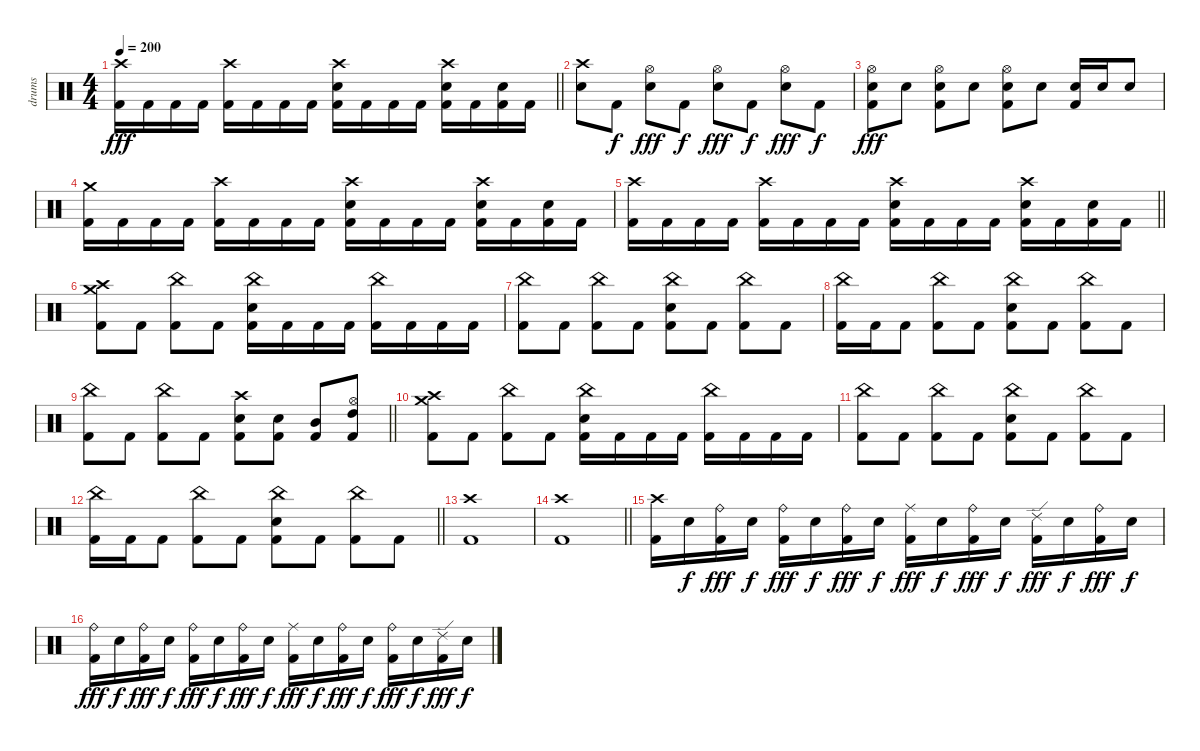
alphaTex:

\track ("drums" "drums") {instrument percussion}
\staff {score}
\articulation defaults
\ts (4 4)
\tempo 200
\clef neutral
\barLineRight lightlight
\ks c
("Crash high (hit)" "Kick (hit) 2").16{dy fff} "Kick (hit) 2".16 "Kick (hit) 2".16 "Kick (hit) 2".16 ("Crash high (hit)" "Kick (hit) 2").16 "Kick (hit) 2".16 "Kick (hit) 2".16 "Kick (hit) 2".16 ("Crash high (hit)" "Electric Snare (hit)" "Kick (hit) 2").16 "Kick (hit) 2".16 "Kick (hit) 2".16 "Kick (hit) 2".16 ("Crash high (hit)" "Electric Snare (hit)" "Kick (hit) 2").16 "Kick (hit) 2".16 ("Electric Snare (hit)" "Kick (hit) 2").16 "Kick (hit) 2".16 |
("Crash high (hit)" "Electric Snare (hit)").8 "Kick (hit) 2".8{dy f} ("Hi-Hat (open)" "Electric Snare (hit)").8{dy fff} "Kick (hit) 2".8{dy f} ("Hi-Hat (open)" "Electric Snare (hit)").8{dy fff} "Kick (hit) 2".8{dy f} ("Hi-Hat (open)" "Electric Snare (hit)").8{dy fff} "Kick (hit) 2".8{dy f} |
("Hi-Hat (open)" "Electric Snare (hit)" "Kick (hit) 2").8{dy fff} "Electric Snare (hit)".8 ("Hi-Hat (open)" "Electric Snare (hit)" "Kick (hit) 2").8 "Electric Snare (hit)".8 ("Hi-Hat (open)" "Electric Snare (hit)" "Kick (hit) 2").8 "Electric Snare (hit)".8 ("Electric Snare (hit)" "Kick (hit) 2").16 "Electric Snare (hit)".16 "Electric Snare (hit)".8 |
("Crash medium (hit)" "Kick (hit) 2").16 "Kick (hit) 2".16 "Kick (hit) 2".16 "Kick (hit) 2".16 ("Crash high (hit)" "Kick (hit) 2").16 "Kick (hit) 2".16 "Kick (hit) 2".16 "Kick (hit) 2".16 ("Crash high (hit)" "Electric Snare (hit)" "Kick (hit) 2").16 "Kick (hit) 2".16 "Kick (hit) 2".16 "Kick (hit) 2".16 ("Crash high (hit)" "Electric Snare (hit)" "Kick (hit) 2").16 "Kick (hit) 2".16 ("Electric Snare (hit)" "Kick (hit) 2").16 "Kick (hit) 2".16 |
\barLineRight lightlight
("Crash high (hit)" "Kick (hit) 2").16 "Kick (hit) 2".16 "Kick (hit) 2".16 "Kick (hit) 2".16 ("Crash high (hit)" "Kick (hit) 2").16 "Kick (hit) 2".16 "Kick (hit) 2".16 "Kick (hit) 2".16 ("Crash high (hit)" "Electric Snare (hit)" "Kick (hit) 2").16 "Kick (hit) 2".16 "Kick (hit) 2".16 "Kick (hit) 2".16 ("Crash high (hit)" "Electric Snare (hit)" "Kick (hit) 2").16 "Kick (hit) 2".16 ("Electric Snare (hit)" "Kick (hit) 2").16 "Kick (hit) 2".16 |
("Crash high (hit)" "Crash medium (hit)" "Kick (hit) 2").8 "Kick (hit) 2".8 ("China (hit)" "Kick (hit) 2").8 "Kick (hit) 2".8 ("China (hit)" "Electric Snare (hit)" "Kick (hit) 2").16 "Kick (hit) 2".16 "Kick (hit) 2".16 "Kick (hit) 2".16 ("China (hit)" "Kick (hit) 2").16 "Kick (hit) 2".16 "Kick (hit) 2".16 "Kick (hit) 2".16 |
("China (hit)" "Kick (hit) 2").8 "Kick (hit) 2".8 ("China (hit)" "Kick (hit) 2").8 "Kick (hit) 2".8 ("China (hit)" "Electric Snare (hit)" "Kick (hit) 2").8 "Kick (hit) 2".8 ("China (hit)" "Kick (hit) 2").8 "Kick (hit) 2".8 |
("China (hit)" "Kick (hit) 2").16 "Kick (hit) 2".16 "Kick (hit) 2".8 ("China (hit)" "Kick (hit) 2").8 "Kick (hit) 2".8 ("China (hit)" "Electric Snare (hit)" "Kick (hit) 2").8 "Kick (hit) 2".8 ("China (hit)" "Kick (hit) 2").8 "Kick (hit) 2".8 |
\barLineRight lightlight
("China (hit)" "Kick (hit) 2").8 "Kick (hit) 2".8 ("China (hit)" "Kick (hit) 2").8 "Kick (hit) 2".8 ("Crash high (hit)" "Electric Snare (hit)" "Kick (hit) 2").8 ("Electric Snare (hit)" "Kick (hit) 2").8 ("Mid Tom (hit)" "Kick (hit) 2").8 ("Hi-Hat (open)" "High Tom (hit)" "Kick (hit) 2").8 |
("Crash high (hit)" "Crash medium (hit)" "Kick (hit) 2").8 "Kick (hit) 2".8 ("China (hit)" "Kick (hit) 2").8 "Kick (hit) 2".8 ("China (hit)" "Electric Snare (hit)" "Kick (hit) 2").16 "Kick (hit) 2".16 "Kick (hit) 2".16 "Kick (hit) 2".16 ("China (hit)" "Kick (hit) 2").16 "Kick (hit) 2".16 "Kick (hit) 2".16 "Kick (hit) 2".16 |
("China (hit)" "Kick (hit) 2").8 "Kick (hit) 2".8 ("China (hit)" "Kick (hit) 2").8 "Kick (hit) 2".8 ("China (hit)" "Electric Snare (hit)" "Kick (hit) 2").8 "Kick (hit) 2".8 ("China (hit)" "Kick (hit) 2").8 "Kick (hit) 2".8 |
\barLineRight lightlight
("China (hit)" "Kick (hit) 2").16 "Kick (hit) 2".16 "Kick (hit) 2".8 ("China (hit)" "Kick (hit) 2").8 "Kick (hit) 2".8 ("China (hit)" "Electric Snare (hit)" "Kick (hit) 2").8 "Kick (hit) 2".8 ("China (hit)" "Kick (hit) 2").8 "Kick (hit) 2".8 |
("Crash high (hit)" "Kick (hit) 2").1 |
\barLineRight lightlight
("Crash high (hit)" "Kick (hit) 2").1 |
("Crash high (hit)" "Kick (hit) 2").16 "Electric Snare (hit)".16{dy f} ("Ride (bell)" "Kick (hit) 2").16{dy fff} "Electric Snare (hit)".16{dy f} ("Ride (bell)" "Kick (hit) 2").16{dy fff} "Electric Snare (hit)".16{dy f} ("Ride (bell)" "Kick (hit) 2").16{dy fff} "Electric Snare (hit)".16{dy f} ("Ride (middle)" "Kick (hit) 2").16{dy fff} "Electric Snare (hit)".16{dy f} ("Ride (bell)" "Kick (hit) 2").16{dy fff} "Electric Snare (hit)".16{dy f} ("Ride (edge) 2" "Kick (hit) 2").16{dy fff} "Electric Snare (hit)".16{dy f} ("Ride (bell)" "Kick (hit) 2").16{dy fff} "Electric Snare (hit)".16{dy f} |
("Ride (bell)" "Kick (hit) 2").16{dy fff} "Electric Snare (hit)".16{dy f} ("Ride (bell)" "Kick (hit) 2").16{dy fff} "Electric Snare (hit)".16{dy f} ("Ride (bell)" "Kick (hit) 2").16{dy fff} "Electric Snare (hit)".16{dy f} ("Ride (bell)" "Kick (hit) 2").16{dy fff} "Electric Snare (hit)".16{dy f} ("Ride (middle)" "Kick (hit) 2").16{dy fff} "Electric Snare (hit)".16{dy f} ("Ride (bell)" "Kick (hit) 2").16{dy fff} "Electric Snare (hit)".16{dy f} ("Ride (bell)" "Kick (hit) 2").16{dy fff} "Electric Snare (hit)".16{dy f} ("Ride (edge) 2" "Kick (hit) 2").16{dy fff} "Electric Snare (hit)".16{dy f}
